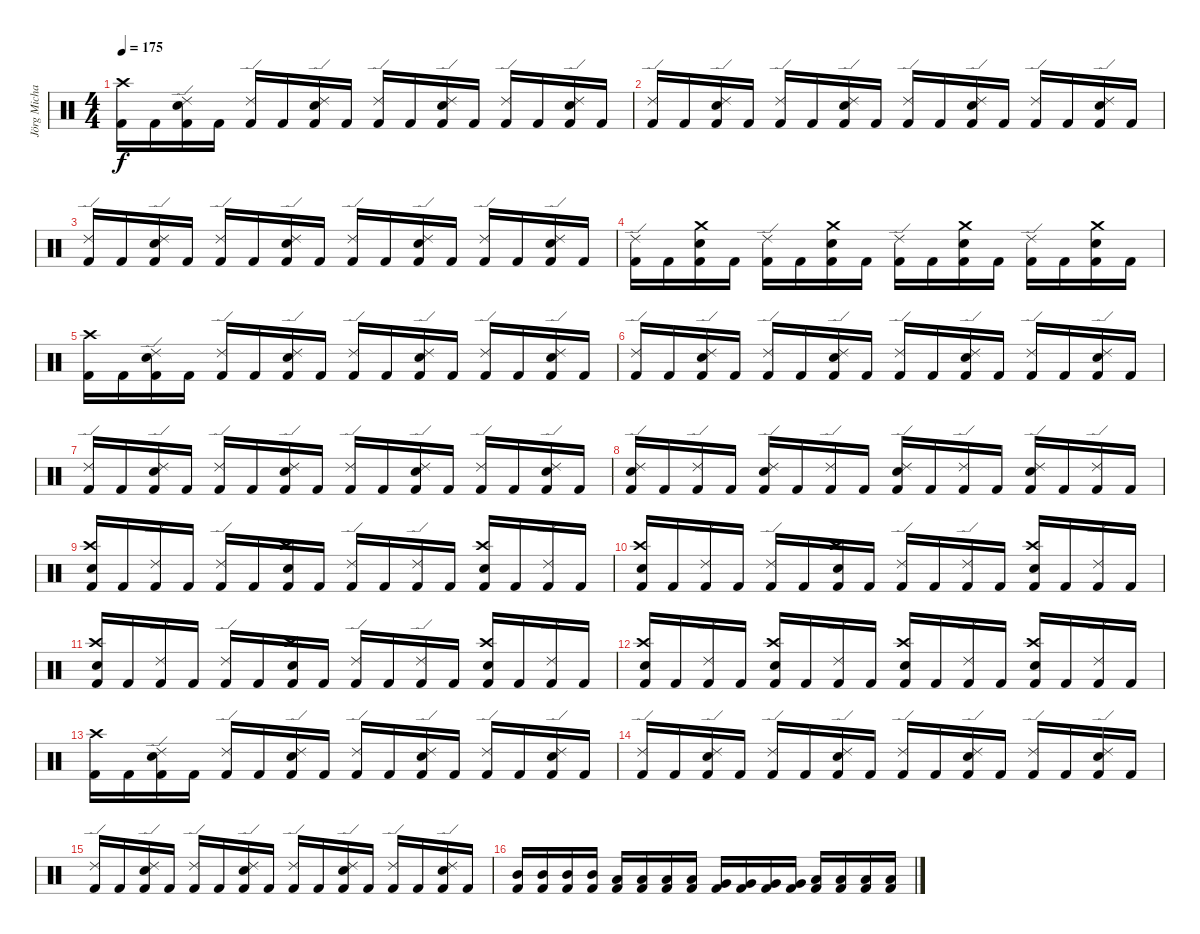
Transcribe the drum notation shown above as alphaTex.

\track ("Jörg Michael" "Jörg Micha") {instrument percussion}
\staff {score}
\articulation defaults
\ts (4 4)
\tempo 175
\clef neutral
\ks c
("Kick (hit) 2" "Crash high (hit)").16{dy f} "Kick (hit) 2".16 ("Kick (hit) 2" "Electric Snare (hit)" "Ride (edge) 2").16 "Kick (hit) 2".16 ("Kick (hit) 2" "Ride (edge) 2").16 "Kick (hit) 2".16 ("Kick (hit) 2" "Electric Snare (hit)" "Ride (edge) 2").16 "Kick (hit) 2".16 ("Kick (hit) 2" "Ride (edge) 2").16 "Kick (hit) 2".16 ("Kick (hit) 2" "Electric Snare (hit)" "Ride (edge) 2").16 "Kick (hit) 2".16 ("Kick (hit) 2" "Ride (edge) 2").16 "Kick (hit) 2".16 ("Kick (hit) 2" "Electric Snare (hit)" "Ride (edge) 2").16 "Kick (hit) 2".16 |
("Kick (hit) 2" "Ride (edge) 2").16 "Kick (hit) 2".16 ("Kick (hit) 2" "Electric Snare (hit)" "Ride (edge) 2").16 "Kick (hit) 2".16 ("Kick (hit) 2" "Ride (edge) 2").16 "Kick (hit) 2".16 ("Kick (hit) 2" "Electric Snare (hit)" "Ride (edge) 2").16 "Kick (hit) 2".16 ("Kick (hit) 2" "Ride (edge) 2").16 "Kick (hit) 2".16 ("Kick (hit) 2" "Electric Snare (hit)" "Ride (edge) 2").16 "Kick (hit) 2".16 ("Kick (hit) 2" "Ride (edge) 2").16 "Kick (hit) 2".16 ("Kick (hit) 2" "Electric Snare (hit)" "Ride (edge) 2").16 "Kick (hit) 2".16 |
("Kick (hit) 2" "Ride (edge) 2").16 "Kick (hit) 2".16 ("Kick (hit) 2" "Electric Snare (hit)" "Ride (edge) 2").16 "Kick (hit) 2".16 ("Kick (hit) 2" "Ride (edge) 2").16 "Kick (hit) 2".16 ("Kick (hit) 2" "Electric Snare (hit)" "Ride (edge) 2").16 "Kick (hit) 2".16 ("Kick (hit) 2" "Ride (edge) 2").16 "Kick (hit) 2".16 ("Kick (hit) 2" "Electric Snare (hit)" "Ride (edge) 2").16 "Kick (hit) 2".16 ("Kick (hit) 2" "Ride (edge) 2").16 "Kick (hit) 2".16 ("Kick (hit) 2" "Electric Snare (hit)" "Ride (edge) 2").16 "Kick (hit) 2".16 |
("Kick (hit) 2" "Ride (edge) 2").16 "Kick (hit) 2".16 ("Kick (hit) 2" "Electric Snare (hit)" "Crash medium (hit)").16 "Kick (hit) 2".16 ("Kick (hit) 2" "Ride (edge) 2").16 "Kick (hit) 2".16 ("Kick (hit) 2" "Electric Snare (hit)" "Crash medium (hit)").16 "Kick (hit) 2".16 ("Kick (hit) 2" "Ride (edge) 2").16 "Kick (hit) 2".16 ("Kick (hit) 2" "Electric Snare (hit)" "Crash medium (hit)").16 "Kick (hit) 2".16 ("Kick (hit) 2" "Ride (edge) 2").16 "Kick (hit) 2".16 ("Kick (hit) 2" "Electric Snare (hit)" "Crash medium (hit)").16 "Kick (hit) 2".16 |
("Kick (hit) 2" "Crash high (hit)").16 "Kick (hit) 2".16 ("Kick (hit) 2" "Electric Snare (hit)" "Ride (edge) 2").16 "Kick (hit) 2".16 ("Kick (hit) 2" "Ride (edge) 2").16 "Kick (hit) 2".16 ("Kick (hit) 2" "Electric Snare (hit)" "Ride (edge) 2").16 "Kick (hit) 2".16 ("Kick (hit) 2" "Ride (edge) 2").16 "Kick (hit) 2".16 ("Kick (hit) 2" "Electric Snare (hit)" "Ride (edge) 2").16 "Kick (hit) 2".16 ("Kick (hit) 2" "Ride (edge) 2").16 "Kick (hit) 2".16 ("Kick (hit) 2" "Electric Snare (hit)" "Ride (edge) 2").16 "Kick (hit) 2".16 |
("Kick (hit) 2" "Ride (edge) 2").16 "Kick (hit) 2".16 ("Kick (hit) 2" "Electric Snare (hit)" "Ride (edge) 2").16 "Kick (hit) 2".16 ("Kick (hit) 2" "Ride (edge) 2").16 "Kick (hit) 2".16 ("Kick (hit) 2" "Electric Snare (hit)" "Ride (edge) 2").16 "Kick (hit) 2".16 ("Kick (hit) 2" "Ride (edge) 2").16 "Kick (hit) 2".16 ("Kick (hit) 2" "Electric Snare (hit)" "Ride (edge) 2").16 "Kick (hit) 2".16 ("Kick (hit) 2" "Ride (edge) 2").16 "Kick (hit) 2".16 ("Kick (hit) 2" "Electric Snare (hit)" "Ride (edge) 2").16 "Kick (hit) 2".16 |
("Kick (hit) 2" "Ride (edge) 2").16 "Kick (hit) 2".16 ("Kick (hit) 2" "Electric Snare (hit)" "Ride (edge) 2").16 "Kick (hit) 2".16 ("Kick (hit) 2" "Ride (edge) 2").16 "Kick (hit) 2".16 ("Kick (hit) 2" "Electric Snare (hit)" "Ride (edge) 2").16 "Kick (hit) 2".16 ("Kick (hit) 2" "Ride (edge) 2").16 "Kick (hit) 2".16 ("Kick (hit) 2" "Electric Snare (hit)" "Ride (edge) 2").16 "Kick (hit) 2".16 ("Kick (hit) 2" "Ride (edge) 2").16 "Kick (hit) 2".16 ("Kick (hit) 2" "Electric Snare (hit)" "Ride (edge) 2").16 "Kick (hit) 2".16 |
("Kick (hit) 2" "Electric Snare (hit)" "Ride (edge) 2").16 "Kick (hit) 2".16 ("Kick (hit) 2" "Ride (edge) 2").16 "Kick (hit) 2".16 ("Kick (hit) 2" "Electric Snare (hit)" "Ride (edge) 2").16 "Kick (hit) 2".16 ("Kick (hit) 2" "Ride (edge) 2").16 "Kick (hit) 2".16 ("Kick (hit) 2" "Electric Snare (hit)" "Ride (edge) 2").16 "Kick (hit) 2".16 ("Kick (hit) 2" "Ride (edge) 2").16 "Kick (hit) 2".16 ("Kick (hit) 2" "Electric Snare (hit)" "Ride (edge) 2").16 "Kick (hit) 2".16 ("Kick (hit) 2" "Ride (edge) 2").16 "Kick (hit) 2".16 |
("Kick (hit) 2" "Electric Snare (hit)" "Crash high (hit)").16 "Kick (hit) 2".16 ("Kick (hit) 2" "Ride (edge) 2").16 "Kick (hit) 2".16 ("Kick (hit) 2" "Ride (edge) 2").16 "Kick (hit) 2".16 ("Kick (hit) 2" "Electric Snare (hit)" "Crash high (hit)").16 "Kick (hit) 2".16 ("Kick (hit) 2" "Ride (edge) 2").16 "Kick (hit) 2".16 ("Kick (hit) 2" "Ride (edge) 2").16 "Kick (hit) 2".16 ("Kick (hit) 2" "Electric Snare (hit)" "Crash high (hit)").16 "Kick (hit) 2".16 ("Kick (hit) 2" "Ride (edge) 2").16 "Kick (hit) 2".16 |
("Kick (hit) 2" "Electric Snare (hit)" "Crash high (hit)").16 "Kick (hit) 2".16 ("Kick (hit) 2" "Ride (edge) 2").16 "Kick (hit) 2".16 ("Kick (hit) 2" "Ride (edge) 2").16 "Kick (hit) 2".16 ("Kick (hit) 2" "Electric Snare (hit)" "Crash high (hit)").16 "Kick (hit) 2".16 ("Kick (hit) 2" "Ride (edge) 2").16 "Kick (hit) 2".16 ("Kick (hit) 2" "Ride (edge) 2").16 "Kick (hit) 2".16 ("Kick (hit) 2" "Electric Snare (hit)" "Crash high (hit)").16 "Kick (hit) 2".16 ("Kick (hit) 2" "Ride (edge) 2").16 "Kick (hit) 2".16 |
("Kick (hit) 2" "Electric Snare (hit)" "Crash high (hit)").16 "Kick (hit) 2".16 ("Kick (hit) 2" "Ride (edge) 2").16 "Kick (hit) 2".16 ("Kick (hit) 2" "Ride (edge) 2").16 "Kick (hit) 2".16 ("Kick (hit) 2" "Electric Snare (hit)" "Crash high (hit)").16 "Kick (hit) 2".16 ("Kick (hit) 2" "Ride (edge) 2").16 "Kick (hit) 2".16 ("Kick (hit) 2" "Ride (edge) 2").16 "Kick (hit) 2".16 ("Kick (hit) 2" "Electric Snare (hit)" "Crash high (hit)").16 "Kick (hit) 2".16 ("Kick (hit) 2" "Ride (edge) 2").16 "Kick (hit) 2".16 |
("Kick (hit) 2" "Electric Snare (hit)" "Crash high (hit)").16 "Kick (hit) 2".16 ("Kick (hit) 2" "Ride (edge) 2").16 "Kick (hit) 2".16 ("Kick (hit) 2" "Electric Snare (hit)" "Crash high (hit)").16 "Kick (hit) 2".16 ("Kick (hit) 2" "Ride (edge) 2").16 "Kick (hit) 2".16 ("Kick (hit) 2" "Electric Snare (hit)" "Crash high (hit)").16 "Kick (hit) 2".16 ("Kick (hit) 2" "Ride (edge) 2").16 "Kick (hit) 2".16 ("Kick (hit) 2" "Electric Snare (hit)" "Crash high (hit)").16 "Kick (hit) 2".16 ("Kick (hit) 2" "Ride (edge) 2").16 "Kick (hit) 2".16 |
("Kick (hit) 2" "Crash high (hit)").16 "Kick (hit) 2".16 ("Kick (hit) 2" "Electric Snare (hit)" "Ride (edge) 2").16 "Kick (hit) 2".16 ("Kick (hit) 2" "Ride (edge) 2").16 "Kick (hit) 2".16 ("Kick (hit) 2" "Electric Snare (hit)" "Ride (edge) 2").16 "Kick (hit) 2".16 ("Kick (hit) 2" "Ride (edge) 2").16 "Kick (hit) 2".16 ("Kick (hit) 2" "Electric Snare (hit)" "Ride (edge) 2").16 "Kick (hit) 2".16 ("Kick (hit) 2" "Ride (edge) 2").16 "Kick (hit) 2".16 ("Kick (hit) 2" "Electric Snare (hit)" "Ride (edge) 2").16 "Kick (hit) 2".16 |
("Kick (hit) 2" "Ride (edge) 2").16 "Kick (hit) 2".16 ("Kick (hit) 2" "Electric Snare (hit)" "Ride (edge) 2").16 "Kick (hit) 2".16 ("Kick (hit) 2" "Ride (edge) 2").16 "Kick (hit) 2".16 ("Kick (hit) 2" "Electric Snare (hit)" "Ride (edge) 2").16 "Kick (hit) 2".16 ("Kick (hit) 2" "Ride (edge) 2").16 "Kick (hit) 2".16 ("Kick (hit) 2" "Electric Snare (hit)" "Ride (edge) 2").16 "Kick (hit) 2".16 ("Kick (hit) 2" "Ride (edge) 2").16 "Kick (hit) 2".16 ("Kick (hit) 2" "Electric Snare (hit)" "Ride (edge) 2").16 "Kick (hit) 2".16 |
("Kick (hit) 2" "Ride (edge) 2").16 "Kick (hit) 2".16 ("Kick (hit) 2" "Electric Snare (hit)" "Ride (edge) 2").16 "Kick (hit) 2".16 ("Kick (hit) 2" "Ride (edge) 2").16 "Kick (hit) 2".16 ("Kick (hit) 2" "Electric Snare (hit)" "Ride (edge) 2").16 "Kick (hit) 2".16 ("Kick (hit) 2" "Ride (edge) 2").16 "Kick (hit) 2".16 ("Kick (hit) 2" "Electric Snare (hit)" "Ride (edge) 2").16 "Kick (hit) 2".16 ("Kick (hit) 2" "Ride (edge) 2").16 "Kick (hit) 2".16 ("Kick (hit) 2" "Electric Snare (hit)" "Ride (edge) 2").16 "Kick (hit) 2".16 |
("Kick (hit) 2" "Mid Tom (hit)").16 ("Kick (hit) 2" "Mid Tom (hit)").16 ("Kick (hit) 2" "Mid Tom (hit)").16 ("Kick (hit) 2" "Mid Tom (hit)").16 ("Kick (hit) 2" "Low Tom (hit)").16 ("Kick (hit) 2" "Low Tom (hit)").16 ("Kick (hit) 2" "Low Tom (hit)").16 ("Kick (hit) 2" "Low Tom (hit)").16 ("Kick (hit) 2" "Very Low Tom (hit)").16 ("Kick (hit) 2" "Very Low Tom (hit)").16 ("Kick (hit) 2" "Very Low Tom (hit)").16 ("Kick (hit) 2" "Very Low Tom (hit)").16 ("Kick (hit) 2" "Low Floor Tom (hit)").16 ("Kick (hit) 2" "Low Floor Tom (hit)").16 ("Kick (hit) 2" "Low Floor Tom (hit)").16 ("Kick (hit) 2" "Low Floor Tom (hit)").16
